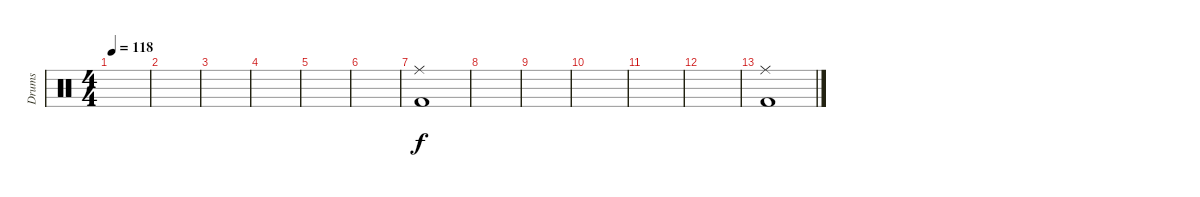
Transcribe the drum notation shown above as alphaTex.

\track ("Drums" "Drums") {instrument percussion}
\staff {score}
\articulation defaults
\ts (4 4)
\tempo 118
\clef neutral
\ks c
|
|
|
|
|
|
("Ride (middle)" "Kick (hit) 2").1{dy f} |
|
|
|
|
|
("Ride (middle)" "Kick (hit) 2").1
